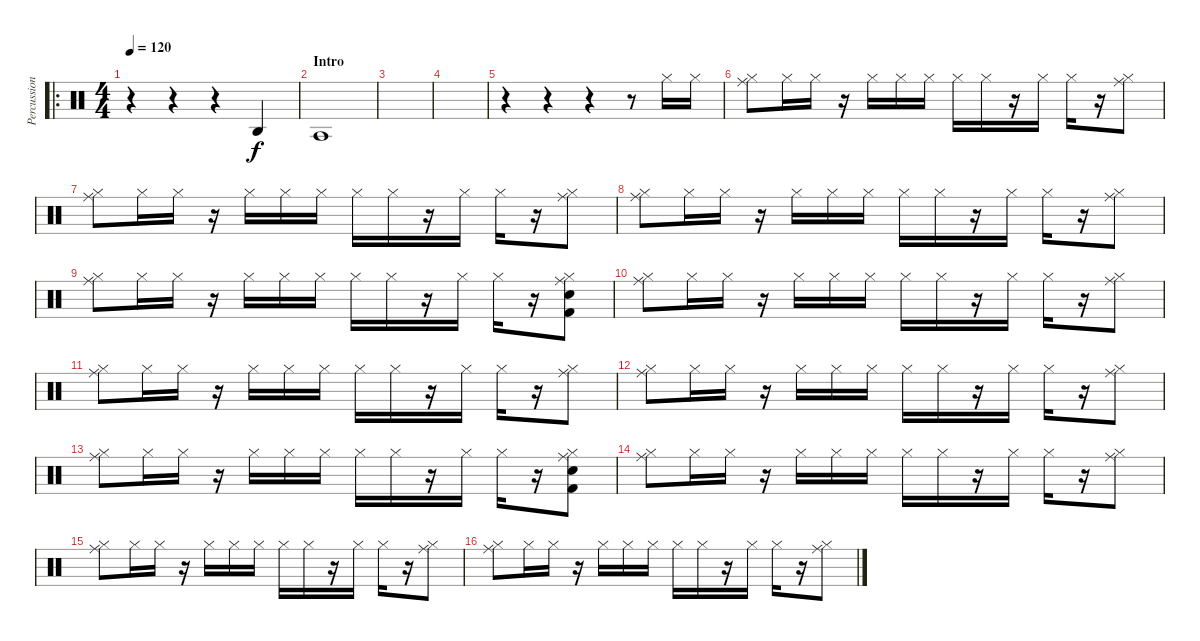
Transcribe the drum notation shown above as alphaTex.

\track ("Percussions" "Percussion") {instrument percussion}
\staff {score}
\articulation defaults
\ro
\ts (4 4)
\tempo 120
\clef neutral
\ks c
r.4{dy f} r.4 r.4 "Agogo high (hit)".4 |
\section ("" "Intro")
"Agogo tow (hit)".1 |
|
|
r.4 r.4 r.4 r.8 "Hi-Hat (closed)".16 "Hi-Hat (closed)".16 |
("Ride (middle)" "Hi-Hat (closed)").8 "Hi-Hat (closed)".16 "Hi-Hat (closed)".16 r.16 "Hi-Hat (closed)".16 "Hi-Hat (closed)".16 "Hi-Hat (closed)".16 "Hi-Hat (closed)".16 "Hi-Hat (closed)".16 r.16 "Hi-Hat (closed)".16 "Hi-Hat (closed)".16 r.16 ("Ride (middle)" "Hi-Hat (closed)").8 |
("Ride (middle)" "Hi-Hat (closed)").8 "Hi-Hat (closed)".16 "Hi-Hat (closed)".16 r.16 "Hi-Hat (closed)".16 "Hi-Hat (closed)".16 "Hi-Hat (closed)".16 "Hi-Hat (closed)".16 "Hi-Hat (closed)".16 r.16 "Hi-Hat (closed)".16 "Hi-Hat (closed)".16 r.16 ("Ride (middle)" "Hi-Hat (closed)").8 |
("Ride (middle)" "Hi-Hat (closed)").8 "Hi-Hat (closed)".16 "Hi-Hat (closed)".16 r.16 "Hi-Hat (closed)".16 "Hi-Hat (closed)".16 "Hi-Hat (closed)".16 "Hi-Hat (closed)".16 "Hi-Hat (closed)".16 r.16 "Hi-Hat (closed)".16 "Hi-Hat (closed)".16 r.16 ("Ride (middle)" "Hi-Hat (closed)").8 |
("Ride (middle)" "Hi-Hat (closed)").8 "Hi-Hat (closed)".16 "Hi-Hat (closed)".16 r.16 "Hi-Hat (closed)".16 "Hi-Hat (closed)".16 "Hi-Hat (closed)".16 "Hi-Hat (closed)".16 "Hi-Hat (closed)".16 r.16 "Hi-Hat (closed)".16 "Hi-Hat (closed)".16 r.16 ("Ride (middle)" "Hi-Hat (closed)" "Electric Snare (hit)" "Kick (hit) 2").8 |
("Ride (middle)" "Hi-Hat (closed)").8 "Hi-Hat (closed)".16 "Hi-Hat (closed)".16 r.16 "Hi-Hat (closed)".16 "Hi-Hat (closed)".16 "Hi-Hat (closed)".16 "Hi-Hat (closed)".16 "Hi-Hat (closed)".16 r.16 "Hi-Hat (closed)".16 "Hi-Hat (closed)".16 r.16 ("Ride (middle)" "Hi-Hat (closed)").8 |
("Ride (middle)" "Hi-Hat (closed)").8 "Hi-Hat (closed)".16 "Hi-Hat (closed)".16 r.16 "Hi-Hat (closed)".16 "Hi-Hat (closed)".16 "Hi-Hat (closed)".16 "Hi-Hat (closed)".16 "Hi-Hat (closed)".16 r.16 "Hi-Hat (closed)".16 "Hi-Hat (closed)".16 r.16 ("Ride (middle)" "Hi-Hat (closed)").8 |
("Ride (middle)" "Hi-Hat (closed)").8 "Hi-Hat (closed)".16 "Hi-Hat (closed)".16 r.16 "Hi-Hat (closed)".16 "Hi-Hat (closed)".16 "Hi-Hat (closed)".16 "Hi-Hat (closed)".16 "Hi-Hat (closed)".16 r.16 "Hi-Hat (closed)".16 "Hi-Hat (closed)".16 r.16 ("Ride (middle)" "Hi-Hat (closed)").8 |
("Ride (middle)" "Hi-Hat (closed)").8 "Hi-Hat (closed)".16 "Hi-Hat (closed)".16 r.16 "Hi-Hat (closed)".16 "Hi-Hat (closed)".16 "Hi-Hat (closed)".16 "Hi-Hat (closed)".16 "Hi-Hat (closed)".16 r.16 "Hi-Hat (closed)".16 "Hi-Hat (closed)".16 r.16 ("Ride (middle)" "Hi-Hat (closed)" "Electric Snare (hit)" "Kick (hit) 2").8 |
("Ride (middle)" "Hi-Hat (closed)").8 "Hi-Hat (closed)".16 "Hi-Hat (closed)".16 r.16 "Hi-Hat (closed)".16 "Hi-Hat (closed)".16 "Hi-Hat (closed)".16 "Hi-Hat (closed)".16 "Hi-Hat (closed)".16 r.16 "Hi-Hat (closed)".16 "Hi-Hat (closed)".16 r.16 ("Ride (middle)" "Hi-Hat (closed)").8 |
("Ride (middle)" "Hi-Hat (closed)").8 "Hi-Hat (closed)".16 "Hi-Hat (closed)".16 r.16 "Hi-Hat (closed)".16 "Hi-Hat (closed)".16 "Hi-Hat (closed)".16 "Hi-Hat (closed)".16 "Hi-Hat (closed)".16 r.16 "Hi-Hat (closed)".16 "Hi-Hat (closed)".16 r.16 ("Ride (middle)" "Hi-Hat (closed)").8 |
("Ride (middle)" "Hi-Hat (closed)").8 "Hi-Hat (closed)".16 "Hi-Hat (closed)".16 r.16 "Hi-Hat (closed)".16 "Hi-Hat (closed)".16 "Hi-Hat (closed)".16 "Hi-Hat (closed)".16 "Hi-Hat (closed)".16 r.16 "Hi-Hat (closed)".16 "Hi-Hat (closed)".16 r.16 ("Ride (middle)" "Hi-Hat (closed)").8
